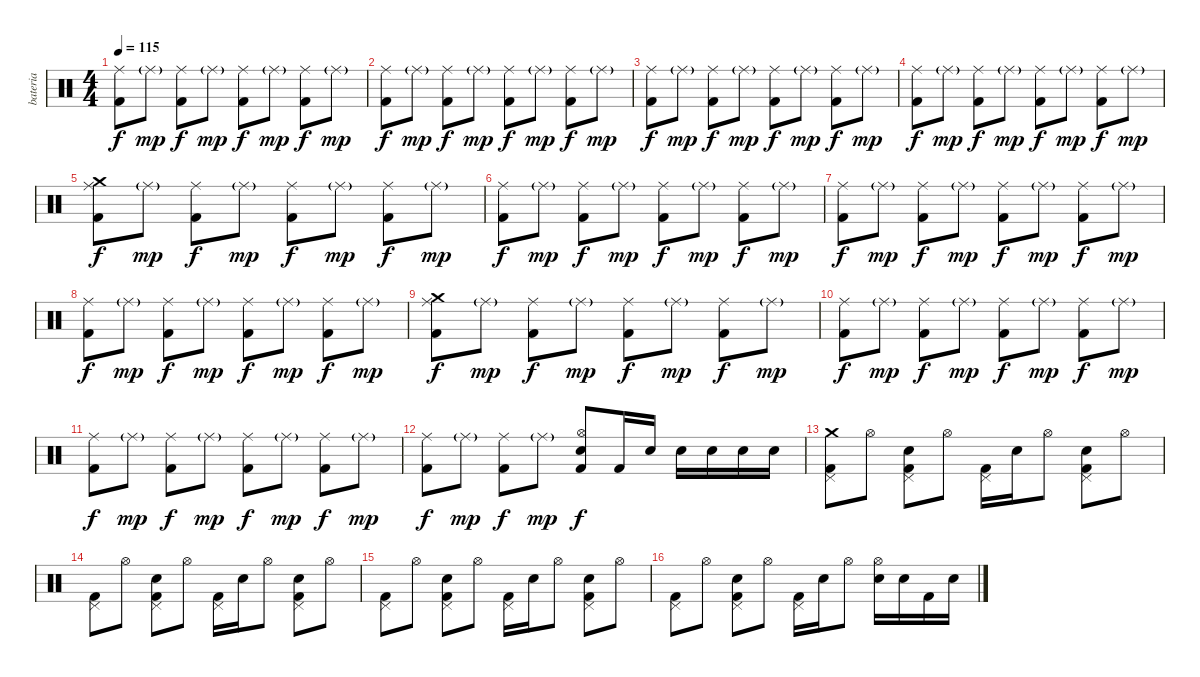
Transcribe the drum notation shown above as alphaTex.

\track ("bateria" "bateria") {instrument percussion}
\staff {score}
\articulation defaults
\ts (4 4)
\tempo 115
\clef neutral
\ks c
("Ride (middle)" "Kick (hit) 2").8{dy f} "Ride (middle)"{g}.8{dy mp} ("Ride (middle)" "Kick (hit) 2").8{dy f} "Ride (middle)"{g}.8{dy mp} ("Ride (middle)" "Kick (hit) 2").8{dy f} "Ride (middle)"{g}.8{dy mp} ("Ride (middle)" "Kick (hit) 2").8{dy f} "Ride (middle)"{g}.8{dy mp} |
("Ride (middle)" "Kick (hit) 2").8{dy f} "Ride (middle)"{g}.8{dy mp} ("Ride (middle)" "Kick (hit) 2").8{dy f} "Ride (middle)"{g}.8{dy mp} ("Ride (middle)" "Kick (hit) 2").8{dy f} "Ride (middle)"{g}.8{dy mp} ("Ride (middle)" "Kick (hit) 2").8{dy f} "Ride (middle)"{g}.8{dy mp} |
("Ride (middle)" "Kick (hit) 2").8{dy f} "Ride (middle)"{g}.8{dy mp} ("Ride (middle)" "Kick (hit) 2").8{dy f} "Ride (middle)"{g}.8{dy mp} ("Ride (middle)" "Kick (hit) 2").8{dy f} "Ride (middle)"{g}.8{dy mp} ("Ride (middle)" "Kick (hit) 2").8{dy f} "Ride (middle)"{g}.8{dy mp} |
("Ride (middle)" "Kick (hit) 2").8{dy f} "Ride (middle)"{g}.8{dy mp} ("Ride (middle)" "Kick (hit) 2").8{dy f} "Ride (middle)"{g}.8{dy mp} ("Ride (middle)" "Kick (hit) 2").8{dy f} "Ride (middle)"{g}.8{dy mp} ("Ride (middle)" "Kick (hit) 2").8{dy f} "Ride (middle)"{g}.8{dy mp} |
("Crash medium (hit)" "Ride (middle)" "Kick (hit) 2").8{dy f} "Ride (middle)"{g}.8{dy mp} ("Ride (middle)" "Kick (hit) 2").8{dy f} "Ride (middle)"{g}.8{dy mp} ("Ride (middle)" "Kick (hit) 2").8{dy f} "Ride (middle)"{g}.8{dy mp} ("Ride (middle)" "Kick (hit) 2").8{dy f} "Ride (middle)"{g}.8{dy mp} |
("Ride (middle)" "Kick (hit) 2").8{dy f} "Ride (middle)"{g}.8{dy mp} ("Ride (middle)" "Kick (hit) 2").8{dy f} "Ride (middle)"{g}.8{dy mp} ("Ride (middle)" "Kick (hit) 2").8{dy f} "Ride (middle)"{g}.8{dy mp} ("Ride (middle)" "Kick (hit) 2").8{dy f} "Ride (middle)"{g}.8{dy mp} |
("Ride (middle)" "Kick (hit) 2").8{dy f} "Ride (middle)"{g}.8{dy mp} ("Ride (middle)" "Kick (hit) 2").8{dy f} "Ride (middle)"{g}.8{dy mp} ("Ride (middle)" "Kick (hit) 2").8{dy f} "Ride (middle)"{g}.8{dy mp} ("Ride (middle)" "Kick (hit) 2").8{dy f} "Ride (middle)"{g}.8{dy mp} |
("Ride (middle)" "Kick (hit) 2").8{dy f} "Ride (middle)"{g}.8{dy mp} ("Ride (middle)" "Kick (hit) 2").8{dy f} "Ride (middle)"{g}.8{dy mp} ("Ride (middle)" "Kick (hit) 2").8{dy f} "Ride (middle)"{g}.8{dy mp} ("Ride (middle)" "Kick (hit) 2").8{dy f} "Ride (middle)"{g}.8{dy mp} |
("Crash medium (hit)" "Ride (middle)" "Kick (hit) 2").8{dy f} "Ride (middle)"{g}.8{dy mp} ("Ride (middle)" "Kick (hit) 2").8{dy f} "Ride (middle)"{g}.8{dy mp} ("Ride (middle)" "Kick (hit) 2").8{dy f} "Ride (middle)"{g}.8{dy mp} ("Ride (middle)" "Kick (hit) 2").8{dy f} "Ride (middle)"{g}.8{dy mp} |
("Ride (middle)" "Kick (hit) 2").8{dy f} "Ride (middle)"{g}.8{dy mp} ("Ride (middle)" "Kick (hit) 2").8{dy f} "Ride (middle)"{g}.8{dy mp} ("Ride (middle)" "Kick (hit) 2").8{dy f} "Ride (middle)"{g}.8{dy mp} ("Ride (middle)" "Kick (hit) 2").8{dy f} "Ride (middle)"{g}.8{dy mp} |
("Ride (middle)" "Kick (hit) 2").8{dy f} "Ride (middle)"{g}.8{dy mp} ("Ride (middle)" "Kick (hit) 2").8{dy f} "Ride (middle)"{g}.8{dy mp} ("Ride (middle)" "Kick (hit) 2").8{dy f} "Ride (middle)"{g}.8{dy mp} ("Ride (middle)" "Kick (hit) 2").8{dy f} "Ride (middle)"{g}.8{dy mp} |
("Ride (middle)" "Kick (hit) 2").8{dy f} "Ride (middle)"{g}.8{dy mp} ("Ride (middle)" "Kick (hit) 2").8{dy f} "Ride (middle)"{g}.8{dy mp} ("Hi-Hat (open)" "Snare (hit) 2" "Kick (hit) 2").8{dy f} "Kick (hit) 2".16 "Snare (hit) 2".16 "Snare (hit) 2".16 "Snare (hit) 2".16 "Snare (hit) 2".16 "Snare (hit) 2".16 |
("Crash medium (hit)" "Pedal Hi-Hat (hit)" "Kick (hit) 2").8 "Hi-Hat (open)".8 ("Pedal Hi-Hat (hit)" "Snare (hit) 2" "Kick (hit) 2").8 "Hi-Hat (open)".8 ("Pedal Hi-Hat (hit)" "Kick (hit) 2").16 "Snare (hit) 2".16 "Hi-Hat (open)".8 ("Pedal Hi-Hat (hit)" "Snare (hit) 2" "Kick (hit) 2").8 "Hi-Hat (open)".8 |
("Pedal Hi-Hat (hit)" "Kick (hit) 2").8 "Hi-Hat (open)".8 ("Pedal Hi-Hat (hit)" "Snare (hit) 2" "Kick (hit) 2").8 "Hi-Hat (open)".8 ("Pedal Hi-Hat (hit)" "Kick (hit) 2").16 "Snare (hit) 2".16 "Hi-Hat (open)".8 ("Pedal Hi-Hat (hit)" "Snare (hit) 2" "Kick (hit) 2").8 "Hi-Hat (open)".8 |
("Pedal Hi-Hat (hit)" "Kick (hit) 2").8 "Hi-Hat (open)".8 ("Pedal Hi-Hat (hit)" "Snare (hit) 2" "Kick (hit) 2").8 "Hi-Hat (open)".8 ("Pedal Hi-Hat (hit)" "Kick (hit) 2").16 "Snare (hit) 2".16 "Hi-Hat (open)".8 ("Pedal Hi-Hat (hit)" "Snare (hit) 2" "Kick (hit) 2").8 "Hi-Hat (open)".8 |
("Pedal Hi-Hat (hit)" "Kick (hit) 2").8 "Hi-Hat (open)".8 ("Pedal Hi-Hat (hit)" "Snare (hit) 2" "Kick (hit) 2").8 "Hi-Hat (open)".8 ("Pedal Hi-Hat (hit)" "Kick (hit) 2").16 "Snare (hit) 2".16 "Hi-Hat (open)".8 ("Hi-Hat (open)" "Snare (hit) 2").16 "Snare (hit) 2".16 "Kick (hit) 2".16 "Snare (hit) 2".16
